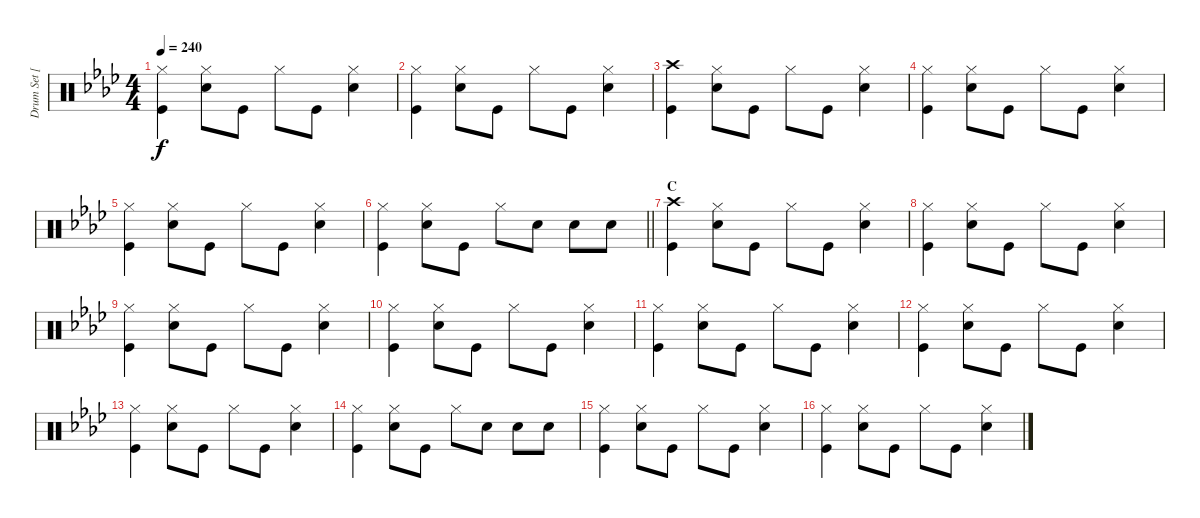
\track ("Drum Set [Ritsu]" "Drum Set [") {instrument percussion}
\staff {score}
\articulation defaults
\ts (4 4)
\tempo 240
\clef neutral
\ks ab
("Hi-Hat (closed)" "Kick (hit)").4{dy f} ("Hi-Hat (closed)" "Snare (hit) 2").8 "Kick (hit)".8 "Hi-Hat (closed)".8 "Kick (hit)".8 ("Hi-Hat (closed)" "Snare (hit) 2").4 |
("Hi-Hat (closed)" "Kick (hit)").4 ("Hi-Hat (closed)" "Snare (hit) 2").8 "Kick (hit)".8 "Hi-Hat (closed)".8 "Kick (hit)".8 ("Hi-Hat (closed)" "Snare (hit) 2").4 |
("Crash high (hit)" "Kick (hit)").4 ("Hi-Hat (closed)" "Snare (hit) 2").8 "Kick (hit)".8 "Hi-Hat (closed)".8 "Kick (hit)".8 ("Hi-Hat (closed)" "Snare (hit) 2").4 |
("Hi-Hat (closed)" "Kick (hit)").4 ("Hi-Hat (closed)" "Snare (hit) 2").8 "Kick (hit)".8 "Hi-Hat (closed)".8 "Kick (hit)".8 ("Hi-Hat (closed)" "Snare (hit) 2").4 |
("Hi-Hat (closed)" "Kick (hit)").4 ("Hi-Hat (closed)" "Snare (hit) 2").8 "Kick (hit)".8 "Hi-Hat (closed)".8 "Kick (hit)".8 ("Hi-Hat (closed)" "Snare (hit) 2").4 |
\barLineRight lightlight
("Hi-Hat (closed)" "Kick (hit)").4 ("Hi-Hat (closed)" "Snare (hit) 2").8 "Kick (hit)".8 "Hi-Hat (closed)".8 "Snare (hit) 2".8 "Snare (hit) 2".8 "Snare (hit) 2".8 |
\section ("" "C")
("Crash high (hit)" "Kick (hit)").4 ("Hi-Hat (closed)" "Snare (hit) 2").8 "Kick (hit)".8 "Hi-Hat (closed)".8 "Kick (hit)".8 ("Hi-Hat (closed)" "Snare (hit) 2").4 |
("Hi-Hat (closed)" "Kick (hit)").4 ("Hi-Hat (closed)" "Snare (hit) 2").8 "Kick (hit)".8 "Hi-Hat (closed)".8 "Kick (hit)".8 ("Hi-Hat (closed)" "Snare (hit) 2").4 |
("Hi-Hat (closed)" "Kick (hit)").4 ("Hi-Hat (closed)" "Snare (hit) 2").8 "Kick (hit)".8 "Hi-Hat (closed)".8 "Kick (hit)".8 ("Hi-Hat (closed)" "Snare (hit) 2").4 |
("Hi-Hat (closed)" "Kick (hit)").4 ("Hi-Hat (closed)" "Snare (hit) 2").8 "Kick (hit)".8 "Hi-Hat (closed)".8 "Kick (hit)".8 ("Hi-Hat (closed)" "Snare (hit) 2").4 |
("Hi-Hat (closed)" "Kick (hit)").4 ("Hi-Hat (closed)" "Snare (hit) 2").8 "Kick (hit)".8 "Hi-Hat (closed)".8 "Kick (hit)".8 ("Hi-Hat (closed)" "Snare (hit) 2").4 |
("Hi-Hat (closed)" "Kick (hit)").4 ("Hi-Hat (closed)" "Snare (hit) 2").8 "Kick (hit)".8 "Hi-Hat (closed)".8 "Kick (hit)".8 ("Hi-Hat (closed)" "Snare (hit) 2").4 |
("Hi-Hat (closed)" "Kick (hit)").4 ("Hi-Hat (closed)" "Snare (hit) 2").8 "Kick (hit)".8 "Hi-Hat (closed)".8 "Kick (hit)".8 ("Hi-Hat (closed)" "Snare (hit) 2").4 |
("Hi-Hat (closed)" "Kick (hit)").4 ("Hi-Hat (closed)" "Snare (hit) 2").8 "Kick (hit)".8 "Hi-Hat (closed)".8 "Snare (hit) 2".8 "Snare (hit) 2".8 "Snare (hit) 2".8 |
("Hi-Hat (closed)" "Kick (hit)").4 ("Hi-Hat (closed)" "Snare (hit) 2").8 "Kick (hit)".8 "Hi-Hat (closed)".8 "Kick (hit)".8 ("Hi-Hat (closed)" "Snare (hit) 2").4 |
("Hi-Hat (closed)" "Kick (hit)").4 ("Hi-Hat (closed)" "Snare (hit) 2").8 "Kick (hit)".8 "Hi-Hat (closed)".8 "Kick (hit)".8 ("Hi-Hat (closed)" "Snare (hit) 2").4
